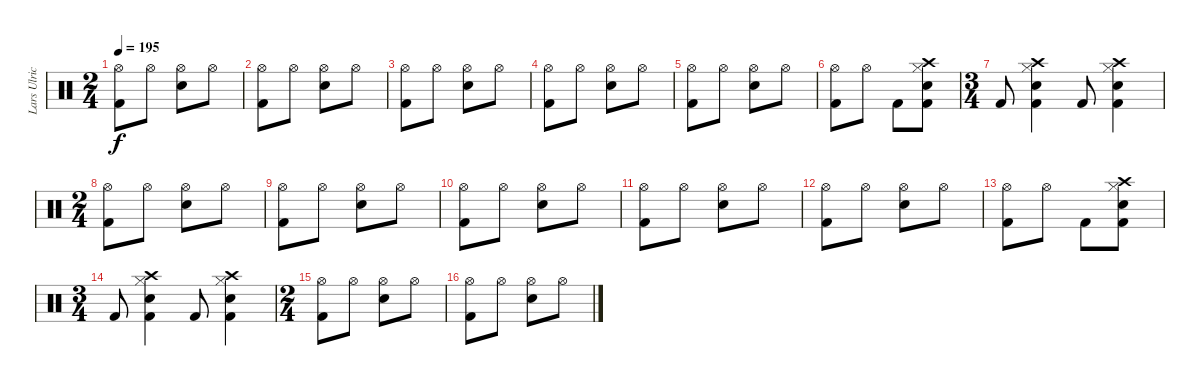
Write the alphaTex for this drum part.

\track ("Lars Ulrich" "Lars Ulric") {instrument percussion}
\staff {score}
\articulation defaults
\ts (2 4)
\tempo 195
\clef neutral
\ks c
("Kick (hit) 2" "Hi-Hat (open)").8{dy f} "Hi-Hat (open)".8 ("Snare (hit) 2" "Hi-Hat (open)").8 "Hi-Hat (open)".8 |
("Kick (hit) 2" "Hi-Hat (open)").8 "Hi-Hat (open)".8 ("Snare (hit) 2" "Hi-Hat (open)").8 "Hi-Hat (open)".8 |
("Kick (hit) 2" "Hi-Hat (open)").8 "Hi-Hat (open)".8 ("Snare (hit) 2" "Hi-Hat (open)").8 "Hi-Hat (open)".8 |
("Kick (hit) 2" "Hi-Hat (open)").8 "Hi-Hat (open)".8 ("Snare (hit) 2" "Hi-Hat (open)").8 "Hi-Hat (open)".8 |
("Kick (hit) 2" "Hi-Hat (open)").8 "Hi-Hat (open)".8 ("Snare (hit) 2" "Hi-Hat (open)").8 "Hi-Hat (open)".8 |
("Kick (hit) 2" "Hi-Hat (open)").8 "Hi-Hat (open)".8 "Kick (hit) 2".8 ("Kick (hit) 2" "Snare (hit) 2" "Hi-Hat (closed)" "Crash high (hit)").8 |
\ts (3 4)
"Kick (hit) 2".8 ("Kick (hit) 2" "Snare (hit) 2" "Hi-Hat (closed)" "Crash high (hit)").4 "Kick (hit) 2".8 ("Kick (hit) 2" "Snare (hit) 2" "Hi-Hat (closed)" "Crash high (hit)").4 |
\ts (2 4)
("Kick (hit) 2" "Hi-Hat (open)").8 "Hi-Hat (open)".8 ("Snare (hit) 2" "Hi-Hat (open)").8 "Hi-Hat (open)".8 |
("Kick (hit) 2" "Hi-Hat (open)").8 "Hi-Hat (open)".8 ("Snare (hit) 2" "Hi-Hat (open)").8 "Hi-Hat (open)".8 |
("Kick (hit) 2" "Hi-Hat (open)").8 "Hi-Hat (open)".8 ("Snare (hit) 2" "Hi-Hat (open)").8 "Hi-Hat (open)".8 |
("Kick (hit) 2" "Hi-Hat (open)").8 "Hi-Hat (open)".8 ("Snare (hit) 2" "Hi-Hat (open)").8 "Hi-Hat (open)".8 |
("Kick (hit) 2" "Hi-Hat (open)").8 "Hi-Hat (open)".8 ("Snare (hit) 2" "Hi-Hat (open)").8 "Hi-Hat (open)".8 |
("Kick (hit) 2" "Hi-Hat (open)").8 "Hi-Hat (open)".8 "Kick (hit) 2".8 ("Kick (hit) 2" "Snare (hit) 2" "Hi-Hat (closed)" "Crash high (hit)").8 |
\ts (3 4)
"Kick (hit) 2".8 ("Kick (hit) 2" "Snare (hit) 2" "Hi-Hat (closed)" "Crash high (hit)").4 "Kick (hit) 2".8 ("Kick (hit) 2" "Snare (hit) 2" "Hi-Hat (closed)" "Crash high (hit)").4 |
\ts (2 4)
("Kick (hit) 2" "Hi-Hat (open)").8 "Hi-Hat (open)".8 ("Snare (hit) 2" "Hi-Hat (open)").8 "Hi-Hat (open)".8 |
("Kick (hit) 2" "Hi-Hat (open)").8 "Hi-Hat (open)".8 ("Snare (hit) 2" "Hi-Hat (open)").8 "Hi-Hat (open)".8
